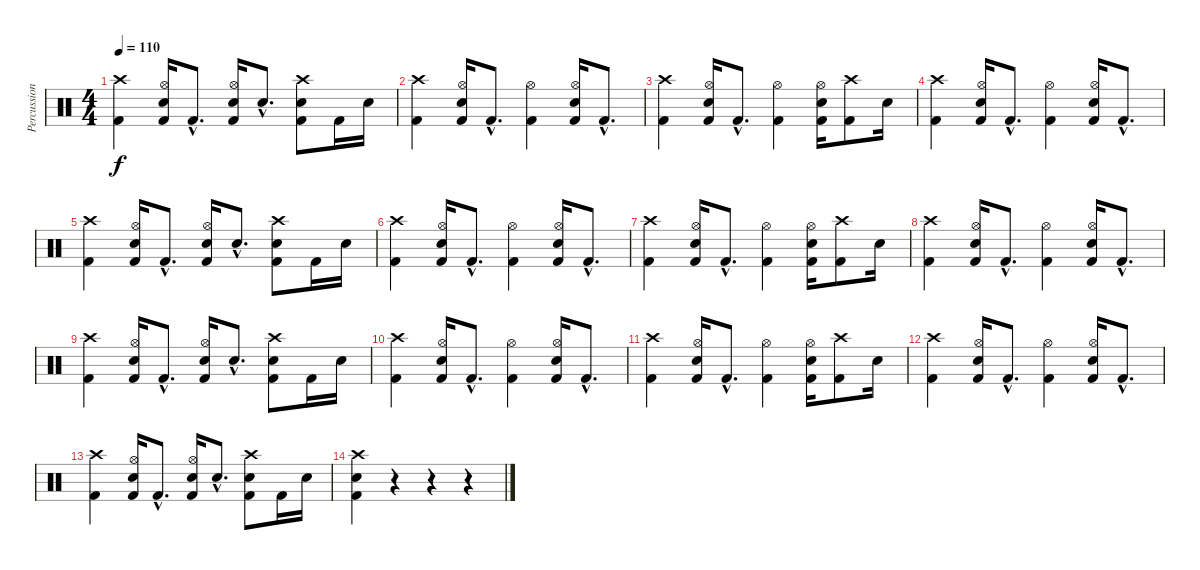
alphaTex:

\track ("Percussions" "Percussion") {instrument percussion}
\staff {score}
\articulation defaults
\ts (4 4)
\tempo 110
\clef neutral
\ks c
("Crash high (hit)" "Kick (hit) 2").4{dy f} ("Hi-Hat (open)" "Electric Snare (hit)" "Kick (hit) 2").16 "Kick (hit) 2"{hac}.8{d} ("Hi-Hat (open)" "Electric Snare (hit)" "Kick (hit) 2").16 "Electric Snare (hit)"{hac}.8{d} ("Crash high (hit)" "Electric Snare (hit)" "Kick (hit) 2").8 "Kick (hit) 2".16 "Electric Snare (hit)".16 |
("Crash high (hit)" "Kick (hit) 2").4 ("Hi-Hat (open)" "Electric Snare (hit)" "Kick (hit) 2").16 "Kick (hit) 2"{hac}.8{d} ("Hi-Hat (open)" "Kick (hit) 2").4 ("Hi-Hat (open)" "Electric Snare (hit)" "Kick (hit) 2").16 "Kick (hit) 2"{hac}.8{d} |
("Crash high (hit)" "Kick (hit) 2").4 ("Hi-Hat (open)" "Electric Snare (hit)" "Kick (hit) 2").16 "Kick (hit) 2"{hac}.8{d} ("Hi-Hat (open)" "Kick (hit) 2").4 ("Hi-Hat (open)" "Electric Snare (hit)" "Kick (hit) 2").16 ("Crash high (hit)" "Kick (hit) 2").8 "Electric Snare (hit)".16 |
("Crash high (hit)" "Kick (hit) 2").4 ("Hi-Hat (open)" "Electric Snare (hit)" "Kick (hit) 2").16 "Kick (hit) 2"{hac}.8{d} ("Hi-Hat (open)" "Kick (hit) 2").4 ("Hi-Hat (open)" "Electric Snare (hit)" "Kick (hit) 2").16 "Kick (hit) 2"{hac}.8{d} |
("Crash high (hit)" "Kick (hit) 2").4 ("Hi-Hat (open)" "Electric Snare (hit)" "Kick (hit) 2").16 "Kick (hit) 2"{hac}.8{d} ("Hi-Hat (open)" "Electric Snare (hit)" "Kick (hit) 2").16 "Electric Snare (hit)"{hac}.8{d} ("Crash high (hit)" "Electric Snare (hit)" "Kick (hit) 2").8 "Kick (hit) 2".16 "Electric Snare (hit)".16 |
("Crash high (hit)" "Kick (hit) 2").4 ("Hi-Hat (open)" "Electric Snare (hit)" "Kick (hit) 2").16 "Kick (hit) 2"{hac}.8{d} ("Hi-Hat (open)" "Kick (hit) 2").4 ("Hi-Hat (open)" "Electric Snare (hit)" "Kick (hit) 2").16 "Kick (hit) 2"{hac}.8{d} |
("Crash high (hit)" "Kick (hit) 2").4 ("Hi-Hat (open)" "Electric Snare (hit)" "Kick (hit) 2").16 "Kick (hit) 2"{hac}.8{d} ("Hi-Hat (open)" "Kick (hit) 2").4 ("Hi-Hat (open)" "Electric Snare (hit)" "Kick (hit) 2").16 ("Crash high (hit)" "Kick (hit) 2").8 "Electric Snare (hit)".16 |
("Crash high (hit)" "Kick (hit) 2").4 ("Hi-Hat (open)" "Electric Snare (hit)" "Kick (hit) 2").16 "Kick (hit) 2"{hac}.8{d} ("Hi-Hat (open)" "Kick (hit) 2").4 ("Hi-Hat (open)" "Electric Snare (hit)" "Kick (hit) 2").16 "Kick (hit) 2"{hac}.8{d} |
("Crash high (hit)" "Kick (hit) 2").4 ("Hi-Hat (open)" "Electric Snare (hit)" "Kick (hit) 2").16 "Kick (hit) 2"{hac}.8{d} ("Hi-Hat (open)" "Electric Snare (hit)" "Kick (hit) 2").16 "Electric Snare (hit)"{hac}.8{d} ("Crash high (hit)" "Electric Snare (hit)" "Kick (hit) 2").8 "Kick (hit) 2".16 "Electric Snare (hit)".16 |
("Crash high (hit)" "Kick (hit) 2").4 ("Hi-Hat (open)" "Electric Snare (hit)" "Kick (hit) 2").16 "Kick (hit) 2"{hac}.8{d} ("Hi-Hat (open)" "Kick (hit) 2").4 ("Hi-Hat (open)" "Electric Snare (hit)" "Kick (hit) 2").16 "Kick (hit) 2"{hac}.8{d} |
("Crash high (hit)" "Kick (hit) 2").4 ("Hi-Hat (open)" "Electric Snare (hit)" "Kick (hit) 2").16 "Kick (hit) 2"{hac}.8{d} ("Hi-Hat (open)" "Kick (hit) 2").4 ("Hi-Hat (open)" "Electric Snare (hit)" "Kick (hit) 2").16 ("Crash high (hit)" "Kick (hit) 2").8 "Electric Snare (hit)".16 |
("Crash high (hit)" "Kick (hit) 2").4 ("Hi-Hat (open)" "Electric Snare (hit)" "Kick (hit) 2").16 "Kick (hit) 2"{hac}.8{d} ("Hi-Hat (open)" "Kick (hit) 2").4 ("Hi-Hat (open)" "Electric Snare (hit)" "Kick (hit) 2").16 "Kick (hit) 2"{hac}.8{d} |
("Crash high (hit)" "Kick (hit) 2").4 ("Hi-Hat (open)" "Electric Snare (hit)" "Kick (hit) 2").16 "Kick (hit) 2"{hac}.8{d} ("Hi-Hat (open)" "Electric Snare (hit)" "Kick (hit) 2").16 "Electric Snare (hit)"{hac}.8{d} ("Crash high (hit)" "Electric Snare (hit)" "Kick (hit) 2").8 "Kick (hit) 2".16 "Electric Snare (hit)".16 |
("Crash high (hit)" "Electric Snare (hit)" "Kick (hit) 2").4 r.4 r.4 r.4
